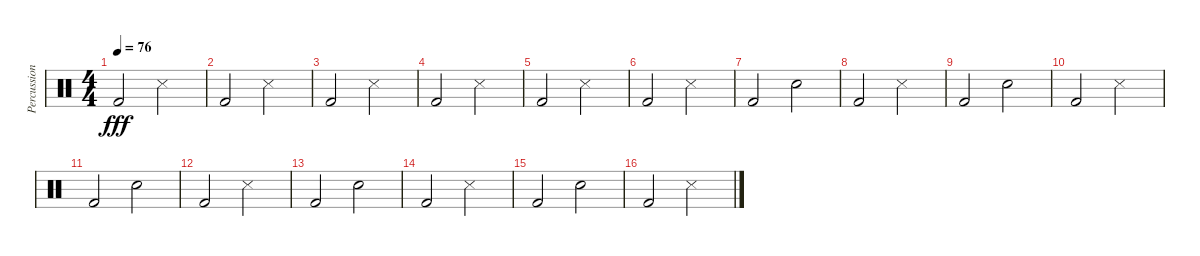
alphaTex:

\track ("Percussion" "Percussion") {instrument percussion}
\staff {score}
\articulation defaults
\ts (4 4)
\tempo 76
\clef neutral
\ks c "Kick (hit) 2".2{dy fff} "Snare (side stick) 3".2
|
"Kick (hit) 2".2 "Snare (side stick) 3".2 |
"Kick (hit) 2".2 "Snare (side stick) 3".2 |
"Kick (hit) 2".2 "Snare (side stick) 3".2 |
"Kick (hit) 2".2 "Snare (side stick) 3".2 |
"Kick (hit) 2".2 "Snare (side stick) 3".2 |
"Kick (hit) 2".2 "Electric Snare (hit)".2 |
"Kick (hit) 2".2 "Snare (side stick) 3".2 |
"Kick (hit) 2".2 "Electric Snare (hit)".2 |
"Kick (hit) 2".2 "Snare (side stick) 3".2 |
"Kick (hit) 2".2 "Electric Snare (hit)".2 |
"Kick (hit) 2".2 "Snare (side stick) 3".2 |
"Kick (hit) 2".2 "Electric Snare (hit)".2 |
"Kick (hit) 2".2 "Snare (side stick) 3".2 |
"Kick (hit) 2".2 "Electric Snare (hit)".2 |
"Kick (hit) 2".2 "Snare (side stick) 3".2
